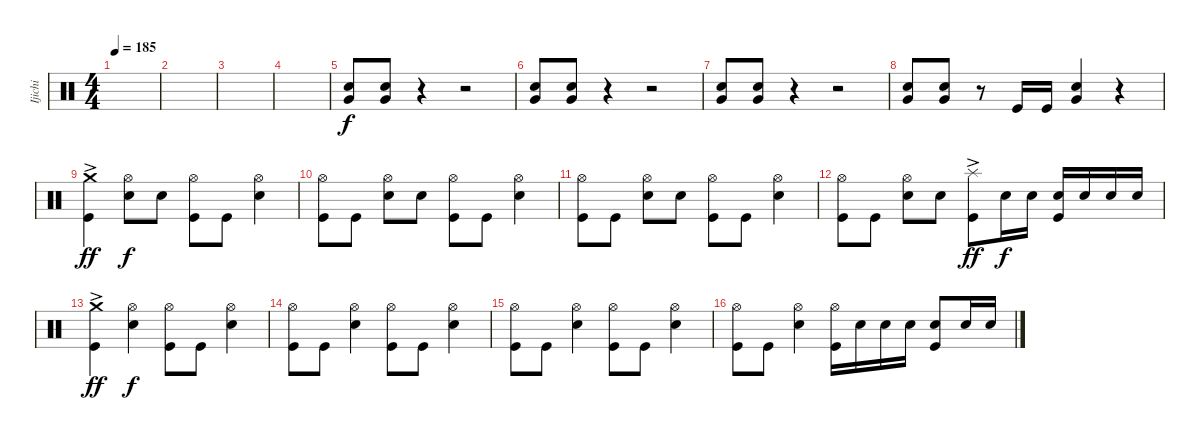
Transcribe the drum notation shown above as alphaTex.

\track ("Ijichi" "Ijichi") {instrument percussion}
\staff {score}
\articulation defaults
\ts (4 4)
\tempo 185
\clef neutral
\ks c
|
|
|
|
("Snare (hit) 2" "Very Low Tom (hit)").8 ("Snare (hit) 2" "Very Low Tom (hit)").8 r.4 r.2 |
("Snare (hit) 2" "Very Low Tom (hit)").8 ("Snare (hit) 2" "Very Low Tom (hit)").8 r.4 r.2 |
("Snare (hit) 2" "Very Low Tom (hit)").8 ("Snare (hit) 2" "Very Low Tom (hit)").8 r.4 r.2 |
("Snare (hit) 2" "Very Low Tom (hit)").8 ("Snare (hit) 2" "Very Low Tom (hit)").8 r.8 "Kick (hit)".16 "Kick (hit)".16 ("Snare (hit) 2" "Very Low Tom (hit)").4 r.4 |
("Crash medium (hit)"{ac} "Kick (hit)").4{dy ff} ("Hi-Hat (open)" "Snare (hit) 2").8{dy f} "Snare (hit) 2".8 ("Hi-Hat (open)" "Kick (hit)").8 "Kick (hit)".8 ("Hi-Hat (open)" "Snare (hit) 2").4 |
("Hi-Hat (open)" "Kick (hit)").8 "Kick (hit)".8 ("Hi-Hat (open)" "Snare (hit) 2").8 "Snare (hit) 2".8 ("Hi-Hat (open)" "Kick (hit)").8 "Kick (hit)".8 ("Hi-Hat (open)" "Snare (hit) 2").4 |
("Hi-Hat (open)" "Kick (hit)").8 "Kick (hit)".8 ("Hi-Hat (open)" "Snare (hit) 2").8 "Snare (hit) 2".8 ("Hi-Hat (open)" "Kick (hit)").8 "Kick (hit)".8 ("Hi-Hat (open)" "Snare (hit) 2").4 |
("Hi-Hat (open)" "Kick (hit)").8 "Kick (hit)".8 ("Hi-Hat (open)" "Snare (hit) 2").8 "Snare (hit) 2".8 ("Splash (hit)"{ac} "Kick (hit)").8{dy ff} "Snare (hit) 2".16{dy f} "Snare (hit) 2".16 ("Snare (hit) 2" "Kick (hit)").16 "Snare (hit) 2".16 "Snare (hit) 2".16 "Snare (hit) 2".16 |
("Crash medium (hit)"{ac} "Kick (hit)").4{dy ff} ("Hi-Hat (open)" "Snare (hit) 2").4{dy f} ("Hi-Hat (open)" "Kick (hit)").8 "Kick (hit)".8 ("Hi-Hat (open)" "Snare (hit) 2").4 |
("Hi-Hat (open)" "Kick (hit)").8 "Kick (hit)".8 ("Hi-Hat (open)" "Snare (hit) 2").4 ("Hi-Hat (open)" "Kick (hit)").8 "Kick (hit)".8 ("Hi-Hat (open)" "Snare (hit) 2").4 |
("Hi-Hat (open)" "Kick (hit)").8 "Kick (hit)".8 ("Hi-Hat (open)" "Snare (hit) 2").4 ("Hi-Hat (open)" "Kick (hit)").8 "Kick (hit)".8 ("Hi-Hat (open)" "Snare (hit) 2").4 |
("Hi-Hat (open)" "Kick (hit)").8 "Kick (hit)".8 ("Hi-Hat (open)" "Snare (hit) 2").4 ("Hi-Hat (open)" "Kick (hit)").16 "Snare (hit) 2".16 "Snare (hit) 2".16 "Snare (hit) 2".16 ("Snare (hit) 2" "Kick (hit)").8 "Snare (hit) 2".16 "Snare (hit) 2".16
